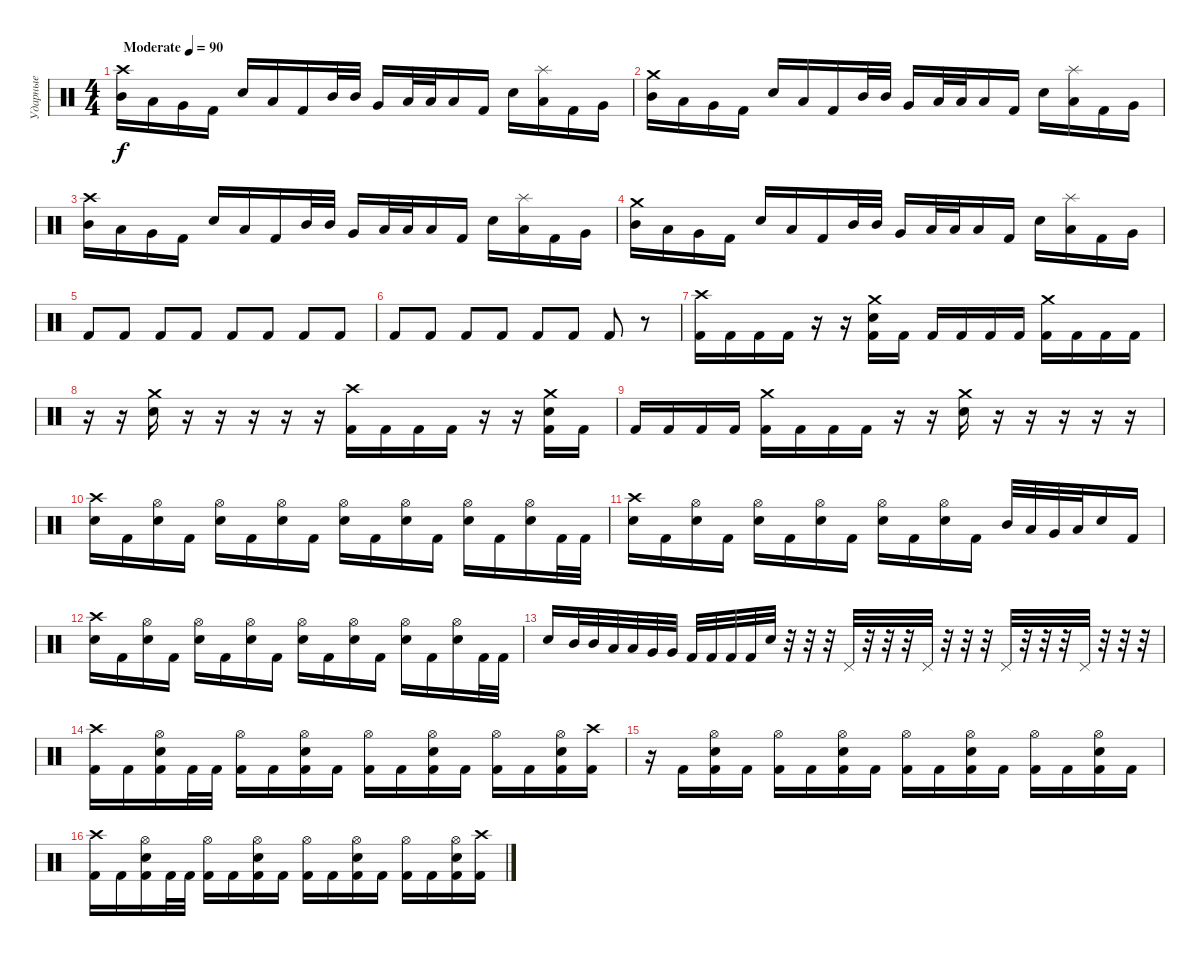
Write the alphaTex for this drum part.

\track ("Ударные" "Ударные") {instrument percussion}
\staff {score}
\articulation defaults
\ts (4 4)
\tempo (90 "Moderate")
\clef neutral
\ks c
("Crash high (hit)" "Mid Tom (hit)").16{dy f} "Low Tom (hit)".16 "Very Low Tom (hit)".16 "Kick (hit) 2".16 "Electric Snare (hit)".16 "Low Tom (hit)".16 "Kick (hit) 2".16 "Mid Tom (hit)".32 "Mid Tom (hit)".32 "Very Low Tom (hit)".16 "Low Tom (hit)".32 "Low Tom (hit)".32 "Low Floor Tom (hit)".16 "Kick (hit) 2".16 "Electric Snare (hit)".16 ("Splash (hit)" "Low Tom (hit)").16 "Kick (hit) 2".16 "Very Low Tom (hit)".16 |
("Crash medium (hit)" "Mid Tom (hit)").16 "Low Tom (hit)".16 "Very Low Tom (hit)".16 "Kick (hit) 2".16 "Electric Snare (hit)".16 "Low Tom (hit)".16 "Kick (hit) 2".16 "Mid Tom (hit)".32 "Mid Tom (hit)".32 "Very Low Tom (hit)".16 "Low Tom (hit)".32 "Low Tom (hit)".32 "Low Floor Tom (hit)".16 "Kick (hit) 2".16 "Electric Snare (hit)".16 ("Splash (hit)" "Low Tom (hit)").16 "Kick (hit) 2".16 "Very Low Tom (hit)".16 |
("Crash high (hit)" "Mid Tom (hit)").16 "Low Tom (hit)".16 "Very Low Tom (hit)".16 "Kick (hit) 2".16 "Electric Snare (hit)".16 "Low Tom (hit)".16 "Kick (hit) 2".16 "Mid Tom (hit)".32 "Mid Tom (hit)".32 "Very Low Tom (hit)".16 "Low Tom (hit)".32 "Low Tom (hit)".32 "Low Floor Tom (hit)".16 "Kick (hit) 2".16 "Electric Snare (hit)".16 ("Splash (hit)" "Low Tom (hit)").16 "Kick (hit) 2".16 "Very Low Tom (hit)".16 |
("Crash medium (hit)" "Mid Tom (hit)").16 "Low Tom (hit)".16 "Very Low Tom (hit)".16 "Kick (hit) 2".16 "Electric Snare (hit)".16 "Low Tom (hit)".16 "Kick (hit) 2".16 "Mid Tom (hit)".32 "Mid Tom (hit)".32 "Very Low Tom (hit)".16 "Low Tom (hit)".32 "Low Tom (hit)".32 "Low Floor Tom (hit)".16 "Kick (hit) 2".16 "Electric Snare (hit)".16 ("Splash (hit)" "Low Tom (hit)").16 "Kick (hit) 2".16 "Very Low Tom (hit)".16 |
"Kick (hit) 2".8 "Kick (hit) 2".8 "Kick (hit) 2".8 "Kick (hit) 2".8 "Kick (hit) 2".8 "Kick (hit) 2".8 "Kick (hit) 2".8 "Kick (hit) 2".8 |
"Kick (hit) 2".8 "Kick (hit) 2".8 "Kick (hit) 2".8 "Kick (hit) 2".8 "Kick (hit) 2".8 "Kick (hit) 2".8 "Kick (hit) 2".8 r.8 |
("Crash high (hit)" "Kick (hit) 2").16 "Kick (hit) 2".16 "Kick (hit) 2".16 "Kick (hit) 2".16 r.16 r.16 ("Crash medium (hit)" "Electric Snare (hit)" "Kick (hit) 2").16 "Kick (hit) 2".16 "Kick (hit) 2".16 "Kick (hit) 2".16 "Kick (hit) 2".16 "Kick (hit) 2".16 ("Crash medium (hit)" "Kick (hit) 2").16 "Kick (hit) 2".16 "Kick (hit) 2".16 "Kick (hit) 2".16 |
r.16 r.16 ("Crash medium (hit)" "Electric Snare (hit)").16 r.16 r.16 r.16 r.16 r.16 ("Crash high (hit)" "Kick (hit) 2").16 "Kick (hit) 2".16 "Kick (hit) 2".16 "Kick (hit) 2".16 r.16 r.16 ("Crash medium (hit)" "Electric Snare (hit)" "Kick (hit) 2").16 "Kick (hit) 2".16 |
"Kick (hit) 2".16 "Kick (hit) 2".16 "Kick (hit) 2".16 "Kick (hit) 2".16 ("Crash medium (hit)" "Kick (hit) 2").16 "Kick (hit) 2".16 "Kick (hit) 2".16 "Kick (hit) 2".16 r.16 r.16 ("Crash medium (hit)" "Electric Snare (hit)").16 r.16 r.16 r.16 r.16 r.16 |
("Crash high (hit)" "Electric Snare (hit)").16 "Kick (hit) 2".16 ("Hi-Hat (open)" "Electric Snare (hit)").16 "Kick (hit) 2".16 ("Hi-Hat (open)" "Electric Snare (hit)").16 "Kick (hit) 2".16 ("Hi-Hat (open)" "Electric Snare (hit)").16 "Kick (hit) 2".16 ("Hi-Hat (open)" "Electric Snare (hit)").16 "Kick (hit) 2".16 ("Hi-Hat (open)" "Electric Snare (hit)").16 "Kick (hit) 2".16 ("Hi-Hat (open)" "Electric Snare (hit)").16 "Kick (hit) 2".16 ("Hi-Hat (open)" "Electric Snare (hit)").16 "Kick (hit) 2".32 "Kick (hit) 2".32 |
("Crash high (hit)" "Electric Snare (hit)").16 "Kick (hit) 2".16 ("Hi-Hat (open)" "Electric Snare (hit)").16 "Kick (hit) 2".16 ("Hi-Hat (open)" "Electric Snare (hit)").16 "Kick (hit) 2".16 ("Hi-Hat (open)" "Electric Snare (hit)").16 "Kick (hit) 2".16 ("Hi-Hat (open)" "Electric Snare (hit)").16 "Kick (hit) 2".16 ("Hi-Hat (open)" "Electric Snare (hit)").16 "Kick (hit) 2".16 "Mid Tom (hit)".32 "Low Tom (hit)".32 "Very Low Tom (hit)".32 "Low Floor Tom (hit)".32 "Electric Snare (hit)".16 "Kick (hit) 2".16 |
("Crash high (hit)" "Electric Snare (hit)").16 "Kick (hit) 2".16 ("Hi-Hat (open)" "Electric Snare (hit)").16 "Kick (hit) 2".16 ("Hi-Hat (open)" "Electric Snare (hit)").16 "Kick (hit) 2".16 ("Hi-Hat (open)" "Electric Snare (hit)").16 "Kick (hit) 2".16 ("Hi-Hat (open)" "Electric Snare (hit)").16 "Kick (hit) 2".16 ("Hi-Hat (open)" "Electric Snare (hit)").16 "Kick (hit) 2".16 ("Hi-Hat (open)" "Electric Snare (hit)").16 "Kick (hit) 2".16 ("Hi-Hat (open)" "Electric Snare (hit)").16 "Kick (hit) 2".32 "Kick (hit) 2".32 |
"Electric Snare (hit)".16 "Mid Tom (hit)".32 "Mid Tom (hit)".32 "Low Tom (hit)".32 "Low Tom (hit)".32 "Very Low Tom (hit)".32 "Very Low Tom (hit)".32 "Kick (hit) 2".32 "Kick (hit) 2".32 "Kick (hit) 2".32 "Kick (hit) 2".32 "Electric Snare (hit)".32 r.32 r.32 r.32 "Pedal Hi-Hat (hit)".32 r.32 r.32 r.32 "Pedal Hi-Hat (hit)".32 r.32 r.32 r.32 "Pedal Hi-Hat (hit)".32 r.32 r.32 r.32 "Pedal Hi-Hat (hit)".32 r.32 r.32 r.32 |
("Crash high (hit)" "Kick (hit) 2").16 "Kick (hit) 2".16 ("Hi-Hat (open)" "Electric Snare (hit)" "Kick (hit) 2").16 "Kick (hit) 2".32 "Kick (hit) 2".32 ("Hi-Hat (open)" "Kick (hit) 2").16 "Kick (hit) 2".16 ("Hi-Hat (open)" "Electric Snare (hit)" "Kick (hit) 2").16 "Kick (hit) 2".16 ("Hi-Hat (open)" "Kick (hit) 2").16 "Kick (hit) 2".16 ("Hi-Hat (open)" "Electric Snare (hit)" "Kick (hit) 2").16 "Kick (hit) 2".16 ("Hi-Hat (open)" "Kick (hit) 2").16 "Kick (hit) 2".16 ("Hi-Hat (open)" "Electric Snare (hit)" "Kick (hit) 2").16 ("Crash high (hit)" "Kick (hit) 2").16 |
r.16 "Kick (hit) 2".16 ("Hi-Hat (open)" "Electric Snare (hit)" "Kick (hit) 2").16 "Kick (hit) 2".16 ("Hi-Hat (open)" "Kick (hit) 2").16 "Kick (hit) 2".16 ("Hi-Hat (open)" "Electric Snare (hit)" "Kick (hit) 2").16 "Kick (hit) 2".16 ("Hi-Hat (open)" "Kick (hit) 2").16 "Kick (hit) 2".16 ("Hi-Hat (open)" "Electric Snare (hit)" "Kick (hit) 2").16 "Kick (hit) 2".16 ("Hi-Hat (open)" "Kick (hit) 2").16 "Kick (hit) 2".16 ("Hi-Hat (open)" "Electric Snare (hit)" "Kick (hit) 2").16 "Kick (hit) 2".16 |
("Crash high (hit)" "Kick (hit) 2").16 "Kick (hit) 2".16 ("Hi-Hat (open)" "Electric Snare (hit)" "Kick (hit) 2").16 "Kick (hit) 2".32 "Kick (hit) 2".32 ("Hi-Hat (open)" "Kick (hit) 2").16 "Kick (hit) 2".16 ("Hi-Hat (open)" "Electric Snare (hit)" "Kick (hit) 2").16 "Kick (hit) 2".16 ("Hi-Hat (open)" "Kick (hit) 2").16 "Kick (hit) 2".16 ("Hi-Hat (open)" "Electric Snare (hit)" "Kick (hit) 2").16 "Kick (hit) 2".16 ("Hi-Hat (open)" "Kick (hit) 2").16 "Kick (hit) 2".16 ("Hi-Hat (open)" "Electric Snare (hit)" "Kick (hit) 2").16 ("Crash high (hit)" "Kick (hit) 2").16
